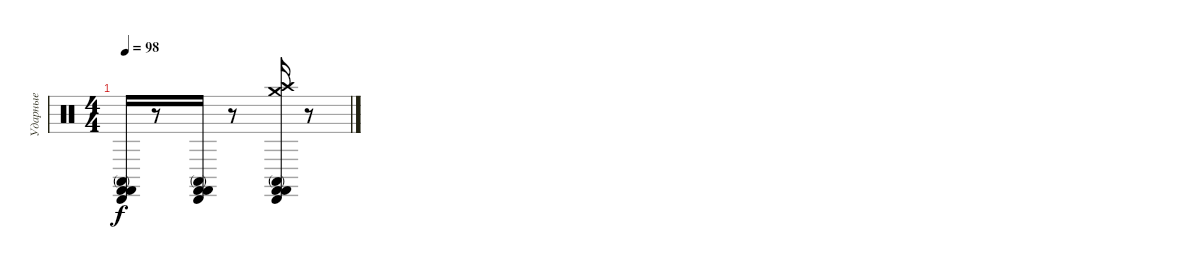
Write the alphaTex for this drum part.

\track ("Ударные" "Ударные") {instrument percussion}
\staff {score}
\articulation defaults
\ts (4 4)
\tempo 98
\clef neutral
\ks c
("Conga high (mute)" "Castanets (hit)" "Cabasa (hit)" "Castanets (hit)").16{dy f} r.8 ("Conga high (mute)" "Castanets (hit)" "Cabasa (hit)" "Castanets (hit)").16 r.8 ("Conga high (mute)" "Castanets (hit)" "Cabasa (hit)" "Castanets (hit)" "Crash medium (hit)" "Crash high (hit)").16 r.8
